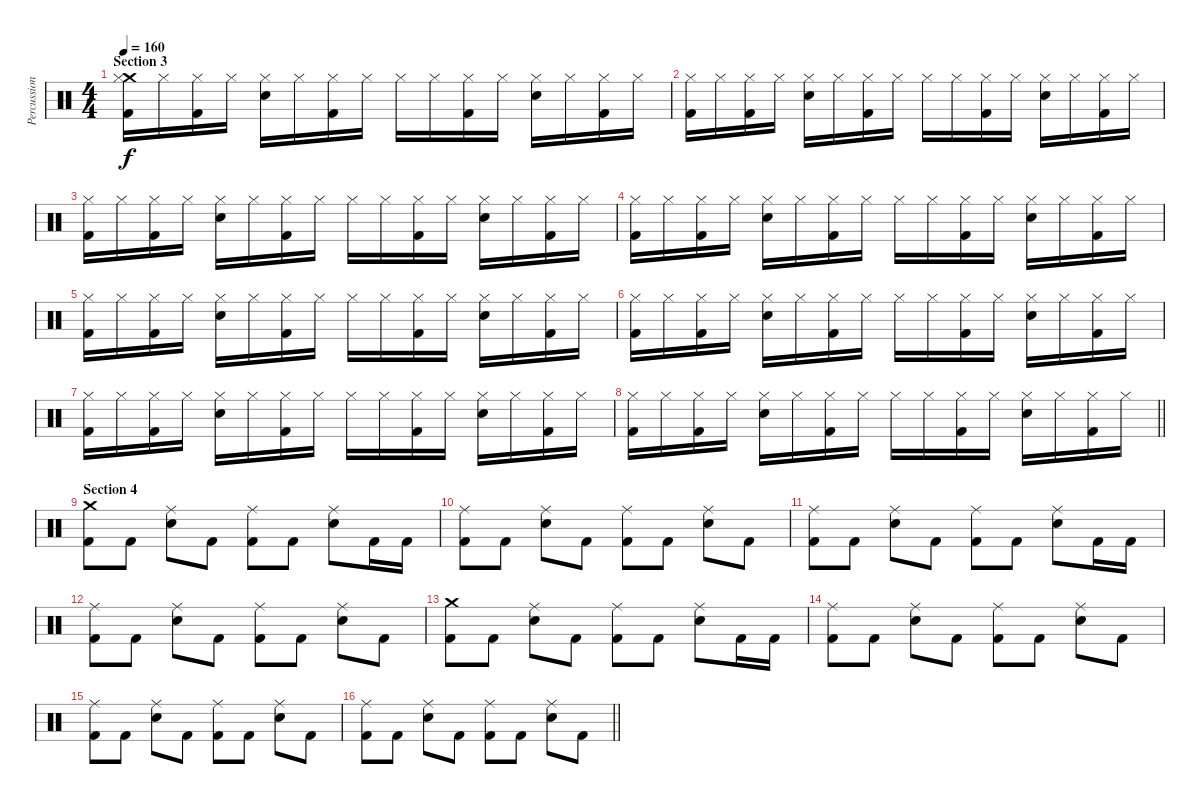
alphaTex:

\track ("Percussion" "Percussion") {instrument percussion}
\staff {score}
\articulation defaults
\ts (4 4)
\section ("" "Section 3")
\tempo 160
\clef neutral
\ks c
("Crash medium (hit)" "Hi-Hat (closed)" "Kick (hit) 2").16{dy f} "Hi-Hat (closed)".16 ("Hi-Hat (closed)" "Kick (hit) 2").16 "Hi-Hat (closed)".16 ("Hi-Hat (closed)" "Snare (hit) 2").16 "Hi-Hat (closed)".16 ("Hi-Hat (closed)" "Kick (hit) 2").16 "Hi-Hat (closed)".16 "Hi-Hat (closed)".16 "Hi-Hat (closed)".16 ("Hi-Hat (closed)" "Kick (hit) 2").16 "Hi-Hat (closed)".16 ("Hi-Hat (closed)" "Snare (hit) 2").16 "Hi-Hat (closed)".16 ("Hi-Hat (closed)" "Kick (hit) 2").16 "Hi-Hat (closed)".16 |
("Hi-Hat (closed)" "Kick (hit) 2").16 "Hi-Hat (closed)".16 ("Hi-Hat (closed)" "Kick (hit) 2").16 "Hi-Hat (closed)".16 ("Hi-Hat (closed)" "Snare (hit) 2").16 "Hi-Hat (closed)".16 ("Hi-Hat (closed)" "Kick (hit) 2").16 "Hi-Hat (closed)".16 "Hi-Hat (closed)".16 "Hi-Hat (closed)".16 ("Hi-Hat (closed)" "Kick (hit) 2").16 "Hi-Hat (closed)".16 ("Hi-Hat (closed)" "Snare (hit) 2").16 "Hi-Hat (closed)".16 ("Hi-Hat (closed)" "Kick (hit) 2").16 "Hi-Hat (closed)".16 |
("Hi-Hat (closed)" "Kick (hit) 2").16 "Hi-Hat (closed)".16 ("Hi-Hat (closed)" "Kick (hit) 2").16 "Hi-Hat (closed)".16 ("Hi-Hat (closed)" "Snare (hit) 2").16 "Hi-Hat (closed)".16 ("Hi-Hat (closed)" "Kick (hit) 2").16 "Hi-Hat (closed)".16 "Hi-Hat (closed)".16 "Hi-Hat (closed)".16 ("Hi-Hat (closed)" "Kick (hit) 2").16 "Hi-Hat (closed)".16 ("Hi-Hat (closed)" "Snare (hit) 2").16 "Hi-Hat (closed)".16 ("Hi-Hat (closed)" "Kick (hit) 2").16 "Hi-Hat (closed)".16 |
("Hi-Hat (closed)" "Kick (hit) 2").16 "Hi-Hat (closed)".16 ("Hi-Hat (closed)" "Kick (hit) 2").16 "Hi-Hat (closed)".16 ("Hi-Hat (closed)" "Snare (hit) 2").16 "Hi-Hat (closed)".16 ("Hi-Hat (closed)" "Kick (hit) 2").16 "Hi-Hat (closed)".16 "Hi-Hat (closed)".16 "Hi-Hat (closed)".16 ("Hi-Hat (closed)" "Kick (hit) 2").16 "Hi-Hat (closed)".16 ("Hi-Hat (closed)" "Snare (hit) 2").16 "Hi-Hat (closed)".16 ("Hi-Hat (closed)" "Kick (hit) 2").16 "Hi-Hat (closed)".16 |
("Hi-Hat (closed)" "Kick (hit) 2").16 "Hi-Hat (closed)".16 ("Hi-Hat (closed)" "Kick (hit) 2").16 "Hi-Hat (closed)".16 ("Hi-Hat (closed)" "Snare (hit) 2").16 "Hi-Hat (closed)".16 ("Hi-Hat (closed)" "Kick (hit) 2").16 "Hi-Hat (closed)".16 "Hi-Hat (closed)".16 "Hi-Hat (closed)".16 ("Hi-Hat (closed)" "Kick (hit) 2").16 "Hi-Hat (closed)".16 ("Hi-Hat (closed)" "Snare (hit) 2").16 "Hi-Hat (closed)".16 ("Hi-Hat (closed)" "Kick (hit) 2").16 "Hi-Hat (closed)".16 |
("Hi-Hat (closed)" "Kick (hit) 2").16 "Hi-Hat (closed)".16 ("Hi-Hat (closed)" "Kick (hit) 2").16 "Hi-Hat (closed)".16 ("Hi-Hat (closed)" "Snare (hit) 2").16 "Hi-Hat (closed)".16 ("Hi-Hat (closed)" "Kick (hit) 2").16 "Hi-Hat (closed)".16 "Hi-Hat (closed)".16 "Hi-Hat (closed)".16 ("Hi-Hat (closed)" "Kick (hit) 2").16 "Hi-Hat (closed)".16 ("Hi-Hat (closed)" "Snare (hit) 2").16 "Hi-Hat (closed)".16 ("Hi-Hat (closed)" "Kick (hit) 2").16 "Hi-Hat (closed)".16 |
("Hi-Hat (closed)" "Kick (hit) 2").16 "Hi-Hat (closed)".16 ("Hi-Hat (closed)" "Kick (hit) 2").16 "Hi-Hat (closed)".16 ("Hi-Hat (closed)" "Snare (hit) 2").16 "Hi-Hat (closed)".16 ("Hi-Hat (closed)" "Kick (hit) 2").16 "Hi-Hat (closed)".16 "Hi-Hat (closed)".16 "Hi-Hat (closed)".16 ("Hi-Hat (closed)" "Kick (hit) 2").16 "Hi-Hat (closed)".16 ("Hi-Hat (closed)" "Snare (hit) 2").16 "Hi-Hat (closed)".16 ("Hi-Hat (closed)" "Kick (hit) 2").16 "Hi-Hat (closed)".16 |
\barLineRight lightlight
("Hi-Hat (closed)" "Kick (hit) 2").16 "Hi-Hat (closed)".16 ("Hi-Hat (closed)" "Kick (hit) 2").16 "Hi-Hat (closed)".16 ("Hi-Hat (closed)" "Snare (hit) 2").16 "Hi-Hat (closed)".16 ("Hi-Hat (closed)" "Kick (hit) 2").16 "Hi-Hat (closed)".16 "Hi-Hat (closed)".16 "Hi-Hat (closed)".16 ("Hi-Hat (closed)" "Kick (hit) 2").16 "Hi-Hat (closed)".16 ("Hi-Hat (closed)" "Snare (hit) 2").16 "Hi-Hat (closed)".16 ("Hi-Hat (closed)" "Kick (hit) 2").16 "Hi-Hat (closed)".16 |
\section ("" "Section 4")
("Crash medium (hit)" "Kick (hit) 2").8 "Kick (hit) 2".8 ("Ride (middle)" "Snare (hit) 2").8 "Kick (hit) 2".8 ("Ride (middle)" "Kick (hit) 2").8 "Kick (hit) 2".8 ("Ride (middle)" "Snare (hit) 2").8 "Kick (hit) 2".16 "Kick (hit) 2".16 |
("Ride (middle)" "Kick (hit) 2").8 "Kick (hit) 2".8 ("Ride (middle)" "Snare (hit) 2").8 "Kick (hit) 2".8 ("Ride (middle)" "Kick (hit) 2").8 "Kick (hit) 2".8 ("Ride (middle)" "Snare (hit) 2").8 "Kick (hit) 2".8 |
("Ride (middle)" "Kick (hit) 2").8 "Kick (hit) 2".8 ("Ride (middle)" "Snare (hit) 2").8 "Kick (hit) 2".8 ("Ride (middle)" "Kick (hit) 2").8 "Kick (hit) 2".8 ("Ride (middle)" "Snare (hit) 2").8 "Kick (hit) 2".16 "Kick (hit) 2".16 |
("Ride (middle)" "Kick (hit) 2").8 "Kick (hit) 2".8 ("Ride (middle)" "Snare (hit) 2").8 "Kick (hit) 2".8 ("Ride (middle)" "Kick (hit) 2").8 "Kick (hit) 2".8 ("Ride (middle)" "Snare (hit) 2").8 "Kick (hit) 2".8 |
("Crash medium (hit)" "Kick (hit) 2").8 "Kick (hit) 2".8 ("Ride (middle)" "Snare (hit) 2").8 "Kick (hit) 2".8 ("Ride (middle)" "Kick (hit) 2").8 "Kick (hit) 2".8 ("Ride (middle)" "Snare (hit) 2").8 "Kick (hit) 2".16 "Kick (hit) 2".16 |
("Ride (middle)" "Kick (hit) 2").8 "Kick (hit) 2".8 ("Ride (middle)" "Snare (hit) 2").8 "Kick (hit) 2".8 ("Ride (middle)" "Kick (hit) 2").8 "Kick (hit) 2".8 ("Ride (middle)" "Snare (hit) 2").8 "Kick (hit) 2".8 |
("Ride (middle)" "Kick (hit) 2").8 "Kick (hit) 2".8 ("Ride (middle)" "Snare (hit) 2").8 "Kick (hit) 2".8 ("Ride (middle)" "Kick (hit) 2").8 "Kick (hit) 2".8 ("Ride (middle)" "Snare (hit) 2").8 "Kick (hit) 2".8 |
\barLineRight lightlight
("Ride (middle)" "Kick (hit) 2").8 "Kick (hit) 2".8 ("Ride (middle)" "Snare (hit) 2").8 "Kick (hit) 2".8 ("Ride (middle)" "Kick (hit) 2").8 "Kick (hit) 2".8 ("Ride (middle)" "Snare (hit) 2").8 "Kick (hit) 2".8
